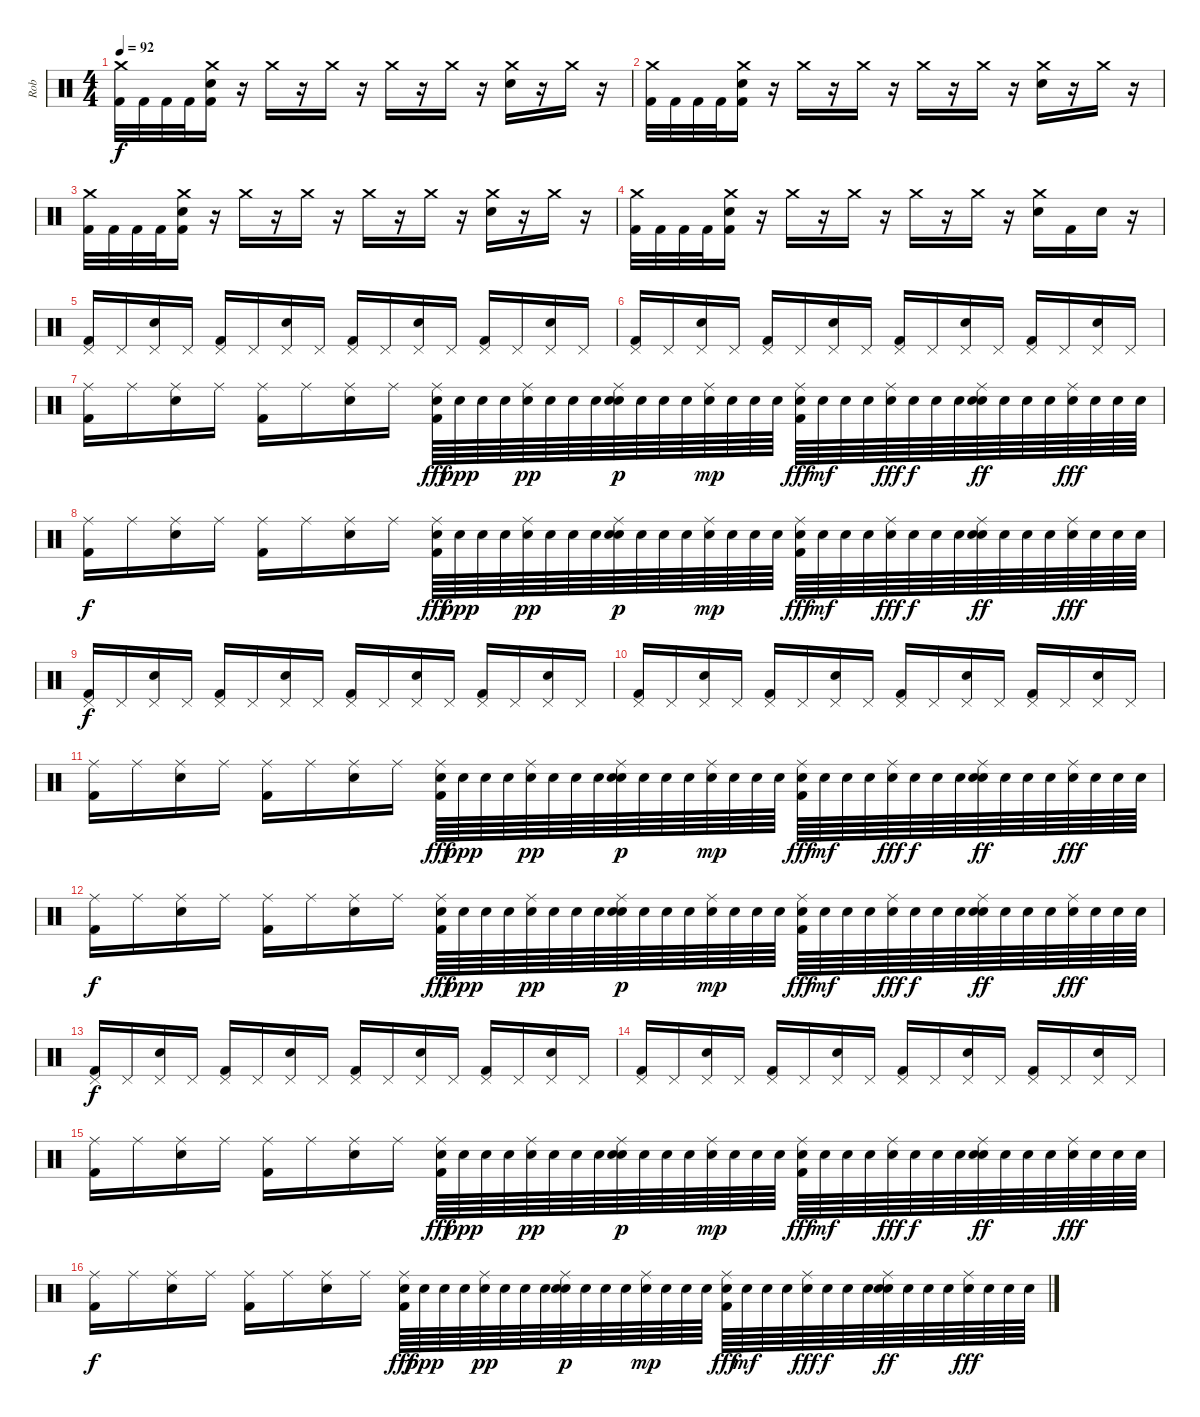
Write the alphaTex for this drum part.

\track ("Rob" "Rob") {instrument percussion}
\staff {score}
\articulation defaults
\ts (4 4)
\tempo 92
\clef neutral
\ks c
("Crash medium (hit)" "Kick (hit) 2").32{dy f} "Kick (hit) 2".32 "Kick (hit) 2".32 "Kick (hit) 2".32 ("Crash medium (hit)" "Electric Snare (hit)" "Kick (hit) 2").16 r.16 "Crash medium (hit)".16 r.16 "Crash medium (hit)".16 r.16 "Crash medium (hit)".16 r.16 "Crash medium (hit)".16 r.16 ("Crash medium (hit)" "Electric Snare (hit)").16 r.16 "Crash medium (hit)".16 r.16 |
("Crash medium (hit)" "Kick (hit) 2").32 "Kick (hit) 2".32 "Kick (hit) 2".32 "Kick (hit) 2".32 ("Crash medium (hit)" "Electric Snare (hit)" "Kick (hit) 2").16 r.16 "Crash medium (hit)".16 r.16 "Crash medium (hit)".16 r.16 "Crash medium (hit)".16 r.16 "Crash medium (hit)".16 r.16 ("Crash medium (hit)" "Electric Snare (hit)").16 r.16 "Crash medium (hit)".16 r.16 |
("Crash medium (hit)" "Kick (hit) 2").32 "Kick (hit) 2".32 "Kick (hit) 2".32 "Kick (hit) 2".32 ("Crash medium (hit)" "Electric Snare (hit)" "Kick (hit) 2").16 r.16 "Crash medium (hit)".16 r.16 "Crash medium (hit)".16 r.16 "Crash medium (hit)".16 r.16 "Crash medium (hit)".16 r.16 ("Crash medium (hit)" "Electric Snare (hit)").16 r.16 "Crash medium (hit)".16 r.16 |
("Crash medium (hit)" "Kick (hit) 2").32 "Kick (hit) 2".32 "Kick (hit) 2".32 "Kick (hit) 2".32 ("Crash medium (hit)" "Electric Snare (hit)" "Kick (hit) 2").16 r.16 "Crash medium (hit)".16 r.16 "Crash medium (hit)".16 r.16 "Crash medium (hit)".16 r.16 "Crash medium (hit)".16 r.16 ("Crash medium (hit)" "Electric Snare (hit)").16 "Kick (hit) 2".16 "Electric Snare (hit)".16 r.16 |
("Pedal Hi-Hat (hit)" "Kick (hit) 2").16 "Pedal Hi-Hat (hit)".16 ("Pedal Hi-Hat (hit)" "Electric Snare (hit)").16 "Pedal Hi-Hat (hit)".16 ("Pedal Hi-Hat (hit)" "Kick (hit) 2").16 "Pedal Hi-Hat (hit)".16 ("Pedal Hi-Hat (hit)" "Electric Snare (hit)").16 "Pedal Hi-Hat (hit)".16 ("Pedal Hi-Hat (hit)" "Kick (hit) 2").16 "Pedal Hi-Hat (hit)".16 ("Pedal Hi-Hat (hit)" "Electric Snare (hit)").16 "Pedal Hi-Hat (hit)".16 ("Pedal Hi-Hat (hit)" "Kick (hit) 2").16 "Pedal Hi-Hat (hit)".16 ("Pedal Hi-Hat (hit)" "Electric Snare (hit)").16 "Pedal Hi-Hat (hit)".16 |
("Pedal Hi-Hat (hit)" "Kick (hit) 2").16 "Pedal Hi-Hat (hit)".16 ("Pedal Hi-Hat (hit)" "Electric Snare (hit)").16 "Pedal Hi-Hat (hit)".16 ("Pedal Hi-Hat (hit)" "Kick (hit) 2").16 "Pedal Hi-Hat (hit)".16 ("Pedal Hi-Hat (hit)" "Electric Snare (hit)").16 "Pedal Hi-Hat (hit)".16 ("Pedal Hi-Hat (hit)" "Kick (hit) 2").16 "Pedal Hi-Hat (hit)".16 ("Pedal Hi-Hat (hit)" "Electric Snare (hit)").16 "Pedal Hi-Hat (hit)".16 ("Pedal Hi-Hat (hit)" "Kick (hit) 2").16 "Pedal Hi-Hat (hit)".16 ("Pedal Hi-Hat (hit)" "Electric Snare (hit)").16 "Pedal Hi-Hat (hit)".16 |
("Ride (middle)" "Kick (hit) 2").16 "Ride (middle)".16 ("Ride (middle)" "Electric Snare (hit)").16 "Ride (middle)".16 ("Ride (middle)" "Kick (hit) 2").16 "Ride (middle)".16 ("Ride (middle)" "Electric Snare (hit)").16 "Ride (middle)".16 ("Ride (middle)" "Electric Snare (hit)" "Kick (hit) 2").64{dy fff} "Electric Snare (hit)".64{dy ppp} "Electric Snare (hit)".64 "Electric Snare (hit)".64 ("Ride (middle)" "Electric Snare (hit)").64{dy pp} "Electric Snare (hit)".64 "Electric Snare (hit)".64 "Electric Snare (hit)".64 ("Ride (middle)" "Electric Snare (hit)" "Electric Snare (hit)").64{dy p} "Electric Snare (hit)".64 "Electric Snare (hit)".64 "Electric Snare (hit)".64 ("Ride (middle)" "Electric Snare (hit)").64{dy mp} "Electric Snare (hit)".64 "Electric Snare (hit)".64 "Electric Snare (hit)".64 ("Ride (middle)" "Electric Snare (hit)" "Kick (hit) 2").64{dy fff} "Electric Snare (hit)".64{dy mf} "Electric Snare (hit)".64 "Electric Snare (hit)".64 ("Ride (middle)" "Electric Snare (hit)").64{dy fff} "Electric Snare (hit)".64{dy f} "Electric Snare (hit)".64 "Electric Snare (hit)".64 ("Ride (middle)" "Electric Snare (hit)" "Electric Snare (hit)").64{dy ff} "Electric Snare (hit)".64 "Electric Snare (hit)".64 "Electric Snare (hit)".64 ("Ride (middle)" "Electric Snare (hit)").64{dy fff} "Electric Snare (hit)".64 "Electric Snare (hit)".64 "Electric Snare (hit)".64 |
("Ride (middle)" "Kick (hit) 2").16{dy f} "Ride (middle)".16 ("Ride (middle)" "Electric Snare (hit)").16 "Ride (middle)".16 ("Ride (middle)" "Kick (hit) 2").16 "Ride (middle)".16 ("Ride (middle)" "Electric Snare (hit)").16 "Ride (middle)".16 ("Ride (middle)" "Electric Snare (hit)" "Kick (hit) 2").64{dy fff} "Electric Snare (hit)".64{dy ppp} "Electric Snare (hit)".64 "Electric Snare (hit)".64 ("Ride (middle)" "Electric Snare (hit)").64{dy pp} "Electric Snare (hit)".64 "Electric Snare (hit)".64 "Electric Snare (hit)".64 ("Ride (middle)" "Electric Snare (hit)" "Electric Snare (hit)").64{dy p} "Electric Snare (hit)".64 "Electric Snare (hit)".64 "Electric Snare (hit)".64 ("Ride (middle)" "Electric Snare (hit)").64{dy mp} "Electric Snare (hit)".64 "Electric Snare (hit)".64 "Electric Snare (hit)".64 ("Ride (middle)" "Electric Snare (hit)" "Kick (hit) 2").64{dy fff} "Electric Snare (hit)".64{dy mf} "Electric Snare (hit)".64 "Electric Snare (hit)".64 ("Ride (middle)" "Electric Snare (hit)").64{dy fff} "Electric Snare (hit)".64{dy f} "Electric Snare (hit)".64 "Electric Snare (hit)".64 ("Ride (middle)" "Electric Snare (hit)" "Electric Snare (hit)").64{dy ff} "Electric Snare (hit)".64 "Electric Snare (hit)".64 "Electric Snare (hit)".64 ("Ride (middle)" "Electric Snare (hit)").64{dy fff} "Electric Snare (hit)".64 "Electric Snare (hit)".64 "Electric Snare (hit)".64 |
("Pedal Hi-Hat (hit)" "Kick (hit) 2").16{dy f} "Pedal Hi-Hat (hit)".16 ("Pedal Hi-Hat (hit)" "Electric Snare (hit)").16 "Pedal Hi-Hat (hit)".16 ("Pedal Hi-Hat (hit)" "Kick (hit) 2").16 "Pedal Hi-Hat (hit)".16 ("Pedal Hi-Hat (hit)" "Electric Snare (hit)").16 "Pedal Hi-Hat (hit)".16 ("Pedal Hi-Hat (hit)" "Kick (hit) 2").16 "Pedal Hi-Hat (hit)".16 ("Pedal Hi-Hat (hit)" "Electric Snare (hit)").16 "Pedal Hi-Hat (hit)".16 ("Pedal Hi-Hat (hit)" "Kick (hit) 2").16 "Pedal Hi-Hat (hit)".16 ("Pedal Hi-Hat (hit)" "Electric Snare (hit)").16 "Pedal Hi-Hat (hit)".16 |
("Pedal Hi-Hat (hit)" "Kick (hit) 2").16 "Pedal Hi-Hat (hit)".16 ("Pedal Hi-Hat (hit)" "Electric Snare (hit)").16 "Pedal Hi-Hat (hit)".16 ("Pedal Hi-Hat (hit)" "Kick (hit) 2").16 "Pedal Hi-Hat (hit)".16 ("Pedal Hi-Hat (hit)" "Electric Snare (hit)").16 "Pedal Hi-Hat (hit)".16 ("Pedal Hi-Hat (hit)" "Kick (hit) 2").16 "Pedal Hi-Hat (hit)".16 ("Pedal Hi-Hat (hit)" "Electric Snare (hit)").16 "Pedal Hi-Hat (hit)".16 ("Pedal Hi-Hat (hit)" "Kick (hit) 2").16 "Pedal Hi-Hat (hit)".16 ("Pedal Hi-Hat (hit)" "Electric Snare (hit)").16 "Pedal Hi-Hat (hit)".16 |
("Ride (middle)" "Kick (hit) 2").16 "Ride (middle)".16 ("Ride (middle)" "Electric Snare (hit)").16 "Ride (middle)".16 ("Ride (middle)" "Kick (hit) 2").16 "Ride (middle)".16 ("Ride (middle)" "Electric Snare (hit)").16 "Ride (middle)".16 ("Ride (middle)" "Electric Snare (hit)" "Kick (hit) 2").64{dy fff} "Electric Snare (hit)".64{dy ppp} "Electric Snare (hit)".64 "Electric Snare (hit)".64 ("Ride (middle)" "Electric Snare (hit)").64{dy pp} "Electric Snare (hit)".64 "Electric Snare (hit)".64 "Electric Snare (hit)".64 ("Ride (middle)" "Electric Snare (hit)" "Electric Snare (hit)").64{dy p} "Electric Snare (hit)".64 "Electric Snare (hit)".64 "Electric Snare (hit)".64 ("Ride (middle)" "Electric Snare (hit)").64{dy mp} "Electric Snare (hit)".64 "Electric Snare (hit)".64 "Electric Snare (hit)".64 ("Ride (middle)" "Electric Snare (hit)" "Kick (hit) 2").64{dy fff} "Electric Snare (hit)".64{dy mf} "Electric Snare (hit)".64 "Electric Snare (hit)".64 ("Ride (middle)" "Electric Snare (hit)").64{dy fff} "Electric Snare (hit)".64{dy f} "Electric Snare (hit)".64 "Electric Snare (hit)".64 ("Ride (middle)" "Electric Snare (hit)" "Electric Snare (hit)").64{dy ff} "Electric Snare (hit)".64 "Electric Snare (hit)".64 "Electric Snare (hit)".64 ("Ride (middle)" "Electric Snare (hit)").64{dy fff} "Electric Snare (hit)".64 "Electric Snare (hit)".64 "Electric Snare (hit)".64 |
("Ride (middle)" "Kick (hit) 2").16{dy f} "Ride (middle)".16 ("Ride (middle)" "Electric Snare (hit)").16 "Ride (middle)".16 ("Ride (middle)" "Kick (hit) 2").16 "Ride (middle)".16 ("Ride (middle)" "Electric Snare (hit)").16 "Ride (middle)".16 ("Ride (middle)" "Electric Snare (hit)" "Kick (hit) 2").64{dy fff} "Electric Snare (hit)".64{dy ppp} "Electric Snare (hit)".64 "Electric Snare (hit)".64 ("Ride (middle)" "Electric Snare (hit)").64{dy pp} "Electric Snare (hit)".64 "Electric Snare (hit)".64 "Electric Snare (hit)".64 ("Ride (middle)" "Electric Snare (hit)" "Electric Snare (hit)").64{dy p} "Electric Snare (hit)".64 "Electric Snare (hit)".64 "Electric Snare (hit)".64 ("Ride (middle)" "Electric Snare (hit)").64{dy mp} "Electric Snare (hit)".64 "Electric Snare (hit)".64 "Electric Snare (hit)".64 ("Ride (middle)" "Electric Snare (hit)" "Kick (hit) 2").64{dy fff} "Electric Snare (hit)".64{dy mf} "Electric Snare (hit)".64 "Electric Snare (hit)".64 ("Ride (middle)" "Electric Snare (hit)").64{dy fff} "Electric Snare (hit)".64{dy f} "Electric Snare (hit)".64 "Electric Snare (hit)".64 ("Ride (middle)" "Electric Snare (hit)" "Electric Snare (hit)").64{dy ff} "Electric Snare (hit)".64 "Electric Snare (hit)".64 "Electric Snare (hit)".64 ("Ride (middle)" "Electric Snare (hit)").64{dy fff} "Electric Snare (hit)".64 "Electric Snare (hit)".64 "Electric Snare (hit)".64 |
("Pedal Hi-Hat (hit)" "Kick (hit) 2").16{dy f} "Pedal Hi-Hat (hit)".16 ("Pedal Hi-Hat (hit)" "Electric Snare (hit)").16 "Pedal Hi-Hat (hit)".16 ("Pedal Hi-Hat (hit)" "Kick (hit) 2").16 "Pedal Hi-Hat (hit)".16 ("Pedal Hi-Hat (hit)" "Electric Snare (hit)").16 "Pedal Hi-Hat (hit)".16 ("Pedal Hi-Hat (hit)" "Kick (hit) 2").16 "Pedal Hi-Hat (hit)".16 ("Pedal Hi-Hat (hit)" "Electric Snare (hit)").16 "Pedal Hi-Hat (hit)".16 ("Pedal Hi-Hat (hit)" "Kick (hit) 2").16 "Pedal Hi-Hat (hit)".16 ("Pedal Hi-Hat (hit)" "Electric Snare (hit)").16 "Pedal Hi-Hat (hit)".16 |
("Pedal Hi-Hat (hit)" "Kick (hit) 2").16 "Pedal Hi-Hat (hit)".16 ("Pedal Hi-Hat (hit)" "Electric Snare (hit)").16 "Pedal Hi-Hat (hit)".16 ("Pedal Hi-Hat (hit)" "Kick (hit) 2").16 "Pedal Hi-Hat (hit)".16 ("Pedal Hi-Hat (hit)" "Electric Snare (hit)").16 "Pedal Hi-Hat (hit)".16 ("Pedal Hi-Hat (hit)" "Kick (hit) 2").16 "Pedal Hi-Hat (hit)".16 ("Pedal Hi-Hat (hit)" "Electric Snare (hit)").16 "Pedal Hi-Hat (hit)".16 ("Pedal Hi-Hat (hit)" "Kick (hit) 2").16 "Pedal Hi-Hat (hit)".16 ("Pedal Hi-Hat (hit)" "Electric Snare (hit)").16 "Pedal Hi-Hat (hit)".16 |
("Ride (middle)" "Kick (hit) 2").16 "Ride (middle)".16 ("Ride (middle)" "Electric Snare (hit)").16 "Ride (middle)".16 ("Ride (middle)" "Kick (hit) 2").16 "Ride (middle)".16 ("Ride (middle)" "Electric Snare (hit)").16 "Ride (middle)".16 ("Ride (middle)" "Electric Snare (hit)" "Kick (hit) 2").64{dy fff} "Electric Snare (hit)".64{dy ppp} "Electric Snare (hit)".64 "Electric Snare (hit)".64 ("Ride (middle)" "Electric Snare (hit)").64{dy pp} "Electric Snare (hit)".64 "Electric Snare (hit)".64 "Electric Snare (hit)".64 ("Ride (middle)" "Electric Snare (hit)" "Electric Snare (hit)").64{dy p} "Electric Snare (hit)".64 "Electric Snare (hit)".64 "Electric Snare (hit)".64 ("Ride (middle)" "Electric Snare (hit)").64{dy mp} "Electric Snare (hit)".64 "Electric Snare (hit)".64 "Electric Snare (hit)".64 ("Ride (middle)" "Electric Snare (hit)" "Kick (hit) 2").64{dy fff} "Electric Snare (hit)".64{dy mf} "Electric Snare (hit)".64 "Electric Snare (hit)".64 ("Ride (middle)" "Electric Snare (hit)").64{dy fff} "Electric Snare (hit)".64{dy f} "Electric Snare (hit)".64 "Electric Snare (hit)".64 ("Ride (middle)" "Electric Snare (hit)" "Electric Snare (hit)").64{dy ff} "Electric Snare (hit)".64 "Electric Snare (hit)".64 "Electric Snare (hit)".64 ("Ride (middle)" "Electric Snare (hit)").64{dy fff} "Electric Snare (hit)".64 "Electric Snare (hit)".64 "Electric Snare (hit)".64 |
("Ride (middle)" "Kick (hit) 2").16{dy f} "Ride (middle)".16 ("Ride (middle)" "Electric Snare (hit)").16 "Ride (middle)".16 ("Ride (middle)" "Kick (hit) 2").16 "Ride (middle)".16 ("Ride (middle)" "Electric Snare (hit)").16 "Ride (middle)".16 ("Ride (middle)" "Electric Snare (hit)" "Kick (hit) 2").64{dy fff} "Electric Snare (hit)".64{dy ppp} "Electric Snare (hit)".64 "Electric Snare (hit)".64 ("Ride (middle)" "Electric Snare (hit)").64{dy pp} "Electric Snare (hit)".64 "Electric Snare (hit)".64 "Electric Snare (hit)".64 ("Ride (middle)" "Electric Snare (hit)" "Electric Snare (hit)").64{dy p} "Electric Snare (hit)".64 "Electric Snare (hit)".64 "Electric Snare (hit)".64 ("Ride (middle)" "Electric Snare (hit)").64{dy mp} "Electric Snare (hit)".64 "Electric Snare (hit)".64 "Electric Snare (hit)".64 ("Ride (middle)" "Electric Snare (hit)" "Kick (hit) 2").64{dy fff} "Electric Snare (hit)".64{dy mf} "Electric Snare (hit)".64 "Electric Snare (hit)".64 ("Ride (middle)" "Electric Snare (hit)").64{dy fff} "Electric Snare (hit)".64{dy f} "Electric Snare (hit)".64 "Electric Snare (hit)".64 ("Ride (middle)" "Electric Snare (hit)" "Electric Snare (hit)").64{dy ff} "Electric Snare (hit)".64 "Electric Snare (hit)".64 "Electric Snare (hit)".64 ("Ride (middle)" "Electric Snare (hit)").64{dy fff} "Electric Snare (hit)".64 "Electric Snare (hit)".64 "Electric Snare (hit)".64
